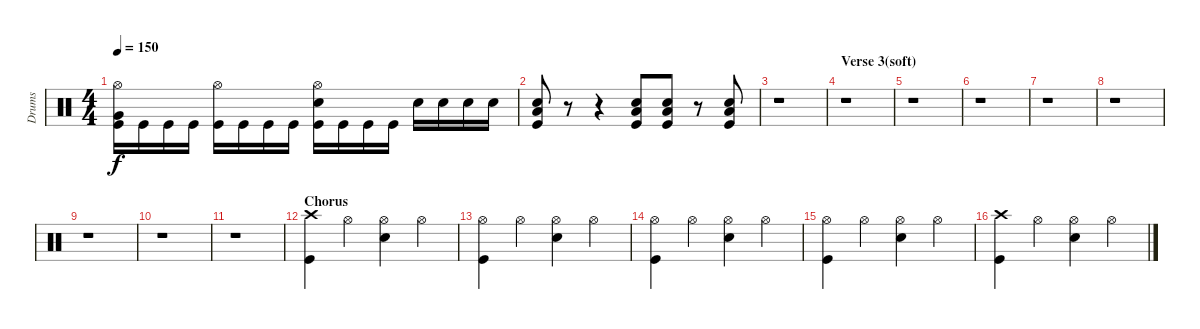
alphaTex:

\track ("Drums" "Drums") {instrument percussion}
\staff {score}
\articulation defaults
\ts (4 4)
\tempo 150
\clef neutral
\ks c
("Hi-Hat (open)" "Very Low Tom (hit)" "Kick (hit)").16{dy f} "Kick (hit)".16 "Kick (hit)".16 "Kick (hit)".16 ("Hi-Hat (open)" "Kick (hit)").16 "Kick (hit)".16 "Kick (hit)".16 "Kick (hit)".16 ("Hi-Hat (open)" "Electric Snare (hit)" "Kick (hit)").16 "Kick (hit)".16 "Kick (hit)".16 "Kick (hit)".16 "Electric Snare (hit)".16 "Electric Snare (hit)".16 "Electric Snare (hit)".16 "Electric Snare (hit)".16 |
("Electric Snare (hit)" "Low Floor Tom (hit)" "Kick (hit)").8 r.8 r.4 ("Electric Snare (hit)" "Low Floor Tom (hit)" "Kick (hit)").8 ("Electric Snare (hit)" "Low Floor Tom (hit)" "Kick (hit)").8 r.8 ("Electric Snare (hit)" "Low Floor Tom (hit)" "Kick (hit)").8 |
r.1 |
\section ("" "Verse 3(soft)")
r.1 |
r.1 |
r.1 |
r.1 |
r.1 |
r.1 |
r.1 |
r.1 |
\section ("" "Chorus")
("Crash high (hit)" "Kick (hit)").4 "Hi-Hat (open)".4 ("Hi-Hat (open)" "Electric Snare (hit)").4 "Hi-Hat (open)".4 |
("Hi-Hat (open)" "Kick (hit)").4 "Hi-Hat (open)".4 ("Hi-Hat (open)" "Electric Snare (hit)").4 "Hi-Hat (open)".4 |
("Hi-Hat (open)" "Kick (hit)").4 "Hi-Hat (open)".4 ("Hi-Hat (open)" "Electric Snare (hit)").4 "Hi-Hat (open)".4 |
("Hi-Hat (open)" "Kick (hit)").4 "Hi-Hat (open)".4 ("Hi-Hat (open)" "Electric Snare (hit)").4 "Hi-Hat (open)".4 |
("Crash high (hit)" "Kick (hit)").4 "Hi-Hat (open)".4 ("Hi-Hat (open)" "Electric Snare (hit)").4 "Hi-Hat (open)".4
